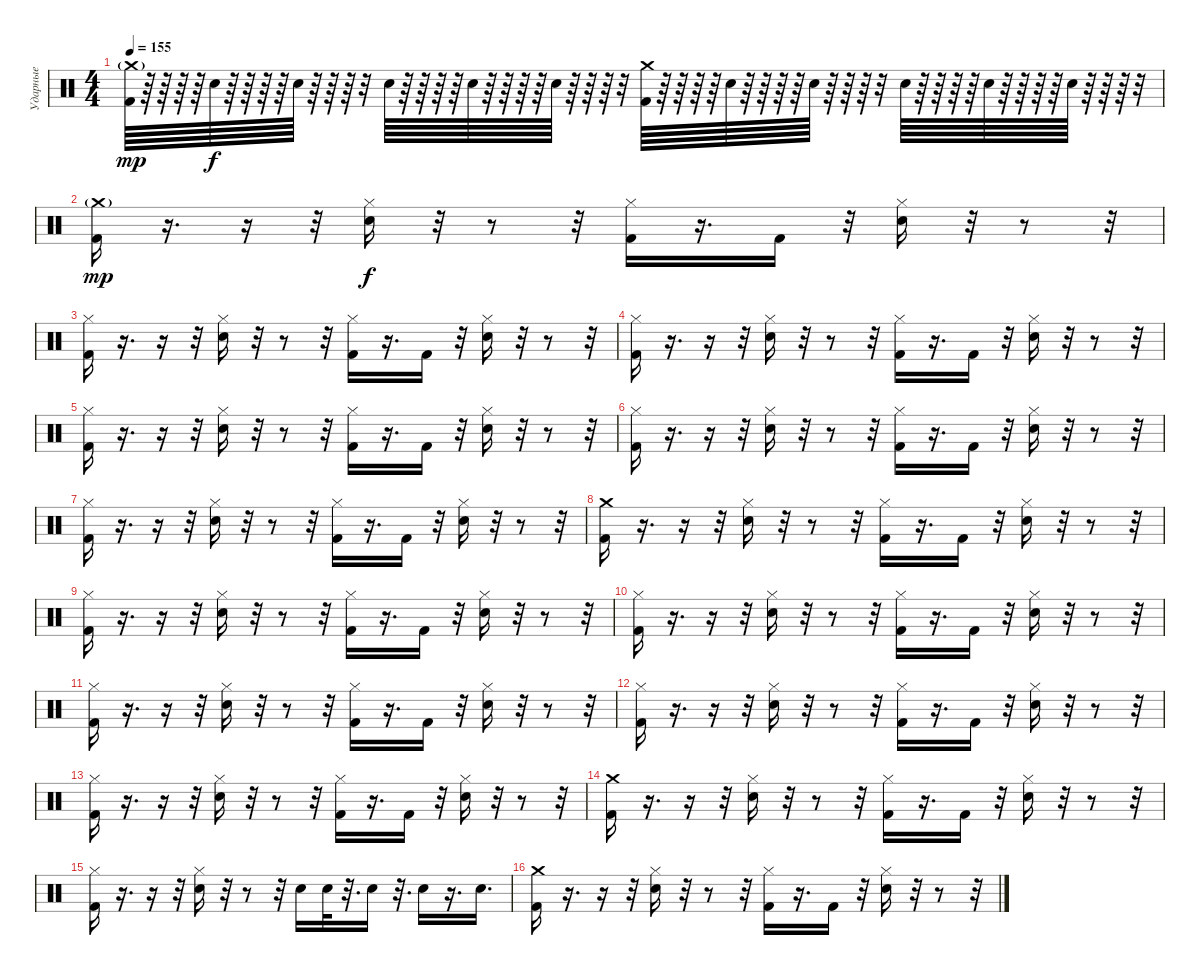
\track ("Ударные" "Ударные") {instrument percussion}
\staff {score}
\articulation defaults
\ts (4 4)
\tempo 155
\clef neutral
\ks c
("Crash medium (hit)"{g} "Kick (hit) 2").64{dy mp} r.64 r.64 r.64 r.64 "Snare (hit) 2".64{dy f} r.64 r.64 r.64 r.64 "Snare (hit) 2".64 r.64 r.64 r.64 r.32 "Electric Snare (hit)".64 r.64 r.64 r.64 r.64 "Electric Snare (hit)".64 r.64 r.64 r.64 r.64 "Electric Snare (hit)".64 r.64 r.64 r.64 r.32 ("Crash medium (hit)" "Kick (hit) 2").64 r.64 r.64 r.64 r.64 "Snare (hit) 2".64 r.64 r.64 r.64 r.64 "Electric Snare (hit)".64 r.64 r.64 r.64 r.32 "Electric Snare (hit)".64 r.64 r.64 r.64 r.64 "Electric Snare (hit)".64 r.64 r.64 r.64 r.64 "Electric Snare (hit)".64 r.64 r.64 r.64 r.32 |
("Crash medium (hit)"{g} "Kick (hit) 2").16{dy mp} r.16{d} r.16 r.32 ("Snare (hit) 2" "Hi-Hat (closed)").16{dy f} r.32 r.8 r.32 ("Hi-Hat (closed)" "Kick (hit) 2").16 r.16{d} "Kick (hit) 2".16 r.32 ("Snare (hit) 2" "Hi-Hat (closed)").16 r.32 r.8 r.32 |
("Hi-Hat (closed)" "Kick (hit) 2").16 r.16{d} r.16 r.32 ("Snare (hit) 2" "Hi-Hat (closed)").16 r.32 r.8 r.32 ("Hi-Hat (closed)" "Kick (hit) 2").16 r.16{d} "Kick (hit) 2".16 r.32 ("Snare (hit) 2" "Hi-Hat (closed)").16 r.32 r.8 r.32 |
("Hi-Hat (closed)" "Kick (hit) 2").16 r.16{d} r.16 r.32 ("Snare (hit) 2" "Hi-Hat (closed)").16 r.32 r.8 r.32 ("Hi-Hat (closed)" "Kick (hit) 2").16 r.16{d} "Kick (hit) 2".16 r.32 ("Snare (hit) 2" "Hi-Hat (closed)").16 r.32 r.8 r.32 |
("Hi-Hat (closed)" "Kick (hit) 2").16 r.16{d} r.16 r.32 ("Snare (hit) 2" "Hi-Hat (closed)").16 r.32 r.8 r.32 ("Hi-Hat (closed)" "Kick (hit) 2").16 r.16{d} "Kick (hit) 2".16 r.32 ("Snare (hit) 2" "Hi-Hat (closed)").16 r.32 r.8 r.32 |
("Hi-Hat (closed)" "Kick (hit) 2").16 r.16{d} r.16 r.32 ("Snare (hit) 2" "Hi-Hat (closed)").16 r.32 r.8 r.32 ("Hi-Hat (closed)" "Kick (hit) 2").16 r.16{d} "Kick (hit) 2".16 r.32 ("Snare (hit) 2" "Hi-Hat (closed)").16 r.32 r.8 r.32 |
("Hi-Hat (closed)" "Kick (hit) 2").16 r.16{d} r.16 r.32 ("Snare (hit) 2" "Hi-Hat (closed)").16 r.32 r.8 r.32 ("Hi-Hat (closed)" "Kick (hit) 2").16 r.16{d} "Kick (hit) 2".16 r.32 ("Snare (hit) 2" "Hi-Hat (closed)").16 r.32 r.8 r.32 |
("Crash medium (hit)" "Kick (hit) 2").16 r.16{d} r.16 r.32 ("Snare (hit) 2" "Hi-Hat (closed)").16 r.32 r.8 r.32 ("Hi-Hat (closed)" "Kick (hit) 2").16 r.16{d} "Kick (hit) 2".16 r.32 ("Snare (hit) 2" "Hi-Hat (closed)").16 r.32 r.8 r.32 |
("Hi-Hat (closed)" "Kick (hit) 2").16 r.16{d} r.16 r.32 ("Snare (hit) 2" "Hi-Hat (closed)").16 r.32 r.8 r.32 ("Hi-Hat (closed)" "Kick (hit) 2").16 r.16{d} "Kick (hit) 2".16 r.32 ("Snare (hit) 2" "Hi-Hat (closed)").16 r.32 r.8 r.32 |
("Hi-Hat (closed)" "Kick (hit) 2").16 r.16{d} r.16 r.32 ("Snare (hit) 2" "Hi-Hat (closed)").16 r.32 r.8 r.32 ("Hi-Hat (closed)" "Kick (hit) 2").16 r.16{d} "Kick (hit) 2".16 r.32 ("Snare (hit) 2" "Hi-Hat (closed)").16 r.32 r.8 r.32 |
("Hi-Hat (closed)" "Kick (hit) 2").16 r.16{d} r.16 r.32 ("Snare (hit) 2" "Hi-Hat (closed)").16 r.32 r.8 r.32 ("Hi-Hat (closed)" "Kick (hit) 2").16 r.16{d} "Kick (hit) 2".16 r.32 ("Snare (hit) 2" "Hi-Hat (closed)").16 r.32 r.8 r.32 |
("Hi-Hat (closed)" "Kick (hit) 2").16 r.16{d} r.16 r.32 ("Snare (hit) 2" "Hi-Hat (closed)").16 r.32 r.8 r.32 ("Hi-Hat (closed)" "Kick (hit) 2").16 r.16{d} "Kick (hit) 2".16 r.32 ("Snare (hit) 2" "Hi-Hat (closed)").16 r.32 r.8 r.32 |
("Hi-Hat (closed)" "Kick (hit) 2").16 r.16{d} r.16 r.32 ("Snare (hit) 2" "Hi-Hat (closed)").16 r.32 r.8 r.32 ("Hi-Hat (closed)" "Kick (hit) 2").16 r.16{d} "Kick (hit) 2".16 r.32 ("Snare (hit) 2" "Hi-Hat (closed)").16 r.32 r.8 r.32 |
("Crash medium (hit)" "Kick (hit) 2").16 r.16{d} r.16 r.32 ("Snare (hit) 2" "Hi-Hat (closed)").16 r.32 r.8 r.32 ("Hi-Hat (closed)" "Kick (hit) 2").16 r.16{d} "Kick (hit) 2".16 r.32 ("Snare (hit) 2" "Hi-Hat (closed)").16 r.32 r.8 r.32 |
("Hi-Hat (closed)" "Kick (hit) 2").16 r.16{d} r.16 r.32 ("Snare (hit) 2" "Hi-Hat (closed)").16 r.32 r.8 r.32 "Electric Snare (hit)".16 "Electric Snare (hit)".32 r.32{d} "Electric Snare (hit)".16 r.32{d} "Snare (hit) 2".16 r.16{d} "Electric Snare (hit)".16{d} |
("Crash medium (hit)" "Kick (hit) 2").16 r.16{d} r.16 r.32 ("Snare (hit) 2" "Hi-Hat (closed)").16 r.32 r.8 r.32 ("Hi-Hat (closed)" "Kick (hit) 2").16 r.16{d} "Kick (hit) 2".16 r.32 ("Snare (hit) 2" "Hi-Hat (closed)").16 r.32 r.8 r.32
